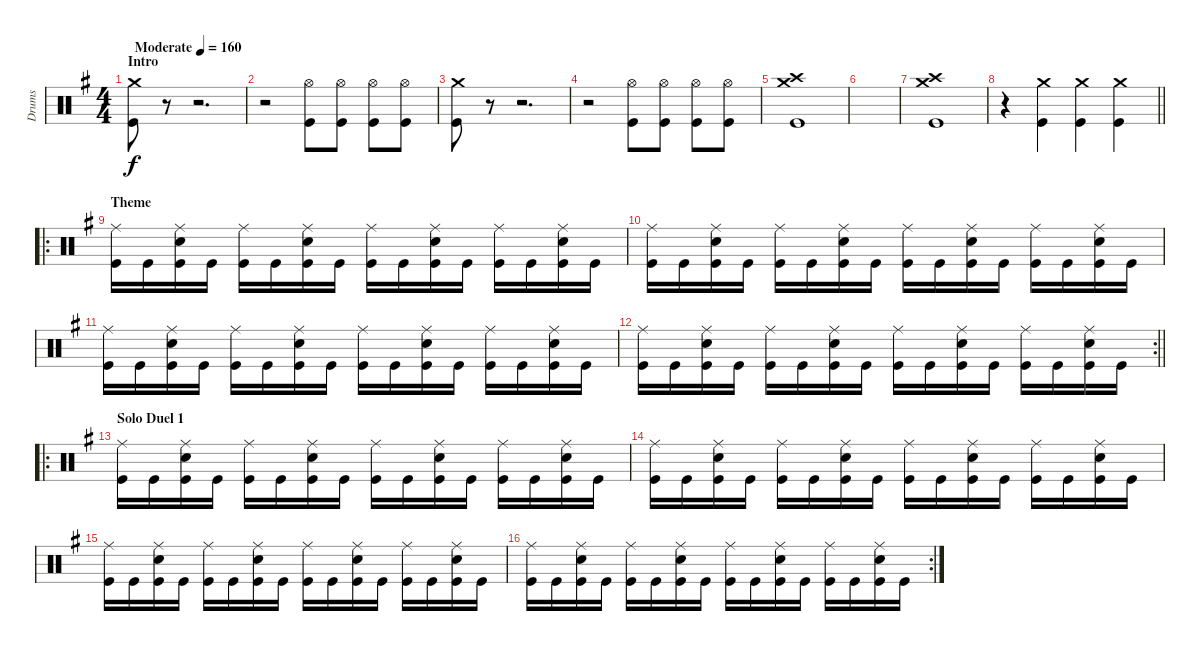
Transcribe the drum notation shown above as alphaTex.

\track ("Drums" "Drums") {instrument percussion}
\staff {score}
\articulation defaults
\ts (4 4)
\section ("" "Intro")
\tempo (160 "Moderate")
\clef neutral
\ks eminor
("Crash medium (hit)" "Kick (hit)").8{dy f} r.8 r.2{d} |
r.2 ("Hi-Hat (open)" "Kick (hit)").8 ("Hi-Hat (open)" "Kick (hit)").8 ("Hi-Hat (open)" "Kick (hit)").8 ("Hi-Hat (open)" "Kick (hit)").8 |
("Crash medium (hit)" "Kick (hit)").8 r.8 r.2{d} |
r.2 ("Hi-Hat (open)" "Kick (hit)").8 ("Hi-Hat (open)" "Kick (hit)").8 ("Hi-Hat (open)" "Kick (hit)").8 ("Hi-Hat (open)" "Kick (hit)").8 |
("Crash medium (hit)" "Crash high (hit)" "Kick (hit)").1 |
|
("Crash medium (hit)" "Crash high (hit)" "Kick (hit)").1 |
\barLineRight lightlight
r.4 ("Crash medium (hit)" "Kick (hit)").4 ("Crash medium (hit)" "Kick (hit)").4 ("Crash medium (hit)" "Kick (hit)").4 |
\ro
\section ("" "Theme")
("Ride (middle)" "Kick (hit)").16 "Kick (hit)".16 ("Ride (middle)" "Snare (hit) 2" "Kick (hit)").16 "Kick (hit)".16 ("Ride (middle)" "Kick (hit)").16 "Kick (hit)".16 ("Ride (middle)" "Snare (hit) 2" "Kick (hit)").16 "Kick (hit)".16 ("Ride (middle)" "Kick (hit)").16 "Kick (hit)".16 ("Ride (middle)" "Snare (hit) 2" "Kick (hit)").16 "Kick (hit)".16 ("Ride (middle)" "Kick (hit)").16 "Kick (hit)".16 ("Ride (middle)" "Snare (hit) 2" "Kick (hit)").16 "Kick (hit)".16 |
("Ride (middle)" "Kick (hit)").16 "Kick (hit)".16 ("Ride (middle)" "Snare (hit) 2" "Kick (hit)").16 "Kick (hit)".16 ("Ride (middle)" "Kick (hit)").16 "Kick (hit)".16 ("Ride (middle)" "Snare (hit) 2" "Kick (hit)").16 "Kick (hit)".16 ("Ride (middle)" "Kick (hit)").16 "Kick (hit)".16 ("Ride (middle)" "Snare (hit) 2" "Kick (hit)").16 "Kick (hit)".16 ("Ride (middle)" "Kick (hit)").16 "Kick (hit)".16 ("Ride (middle)" "Snare (hit) 2" "Kick (hit)").16 "Kick (hit)".16 |
("Ride (middle)" "Kick (hit)").16 "Kick (hit)".16 ("Ride (middle)" "Snare (hit) 2" "Kick (hit)").16 "Kick (hit)".16 ("Ride (middle)" "Kick (hit)").16 "Kick (hit)".16 ("Ride (middle)" "Snare (hit) 2" "Kick (hit)").16 "Kick (hit)".16 ("Ride (middle)" "Kick (hit)").16 "Kick (hit)".16 ("Ride (middle)" "Snare (hit) 2" "Kick (hit)").16 "Kick (hit)".16 ("Ride (middle)" "Kick (hit)").16 "Kick (hit)".16 ("Ride (middle)" "Snare (hit) 2" "Kick (hit)").16 "Kick (hit)".16 |
\rc 2
\barLineRight lightlight
("Ride (middle)" "Kick (hit)").16 "Kick (hit)".16 ("Ride (middle)" "Snare (hit) 2" "Kick (hit)").16 "Kick (hit)".16 ("Ride (middle)" "Kick (hit)").16 "Kick (hit)".16 ("Ride (middle)" "Snare (hit) 2" "Kick (hit)").16 "Kick (hit)".16 ("Ride (middle)" "Kick (hit)").16 "Kick (hit)".16 ("Ride (middle)" "Snare (hit) 2" "Kick (hit)").16 "Kick (hit)".16 ("Ride (middle)" "Kick (hit)").16 "Kick (hit)".16 ("Ride (middle)" "Snare (hit) 2" "Kick (hit)").16 "Kick (hit)".16 |
\ro
\section ("" "Solo Duel 1")
("Ride (middle)" "Kick (hit)").16 "Kick (hit)".16 ("Ride (middle)" "Snare (hit) 2" "Kick (hit)").16 "Kick (hit)".16 ("Ride (middle)" "Kick (hit)").16 "Kick (hit)".16 ("Ride (middle)" "Snare (hit) 2" "Kick (hit)").16 "Kick (hit)".16 ("Ride (middle)" "Kick (hit)").16 "Kick (hit)".16 ("Ride (middle)" "Snare (hit) 2" "Kick (hit)").16 "Kick (hit)".16 ("Ride (middle)" "Kick (hit)").16 "Kick (hit)".16 ("Ride (middle)" "Snare (hit) 2" "Kick (hit)").16 "Kick (hit)".16 |
("Ride (middle)" "Kick (hit)").16 "Kick (hit)".16 ("Ride (middle)" "Snare (hit) 2" "Kick (hit)").16 "Kick (hit)".16 ("Ride (middle)" "Kick (hit)").16 "Kick (hit)".16 ("Ride (middle)" "Snare (hit) 2" "Kick (hit)").16 "Kick (hit)".16 ("Ride (middle)" "Kick (hit)").16 "Kick (hit)".16 ("Ride (middle)" "Snare (hit) 2" "Kick (hit)").16 "Kick (hit)".16 ("Ride (middle)" "Kick (hit)").16 "Kick (hit)".16 ("Ride (middle)" "Snare (hit) 2" "Kick (hit)").16 "Kick (hit)".16 |
("Ride (middle)" "Kick (hit)").16 "Kick (hit)".16 ("Ride (middle)" "Snare (hit) 2" "Kick (hit)").16 "Kick (hit)".16 ("Ride (middle)" "Kick (hit)").16 "Kick (hit)".16 ("Ride (middle)" "Snare (hit) 2" "Kick (hit)").16 "Kick (hit)".16 ("Ride (middle)" "Kick (hit)").16 "Kick (hit)".16 ("Ride (middle)" "Snare (hit) 2" "Kick (hit)").16 "Kick (hit)".16 ("Ride (middle)" "Kick (hit)").16 "Kick (hit)".16 ("Ride (middle)" "Snare (hit) 2" "Kick (hit)").16 "Kick (hit)".16 |
\rc 2
("Ride (middle)" "Kick (hit)").16 "Kick (hit)".16 ("Ride (middle)" "Snare (hit) 2" "Kick (hit)").16 "Kick (hit)".16 ("Ride (middle)" "Kick (hit)").16 "Kick (hit)".16 ("Ride (middle)" "Snare (hit) 2" "Kick (hit)").16 "Kick (hit)".16 ("Ride (middle)" "Kick (hit)").16 "Kick (hit)".16 ("Ride (middle)" "Snare (hit) 2" "Kick (hit)").16 "Kick (hit)".16 ("Ride (middle)" "Kick (hit)").16 "Kick (hit)".16 ("Ride (middle)" "Snare (hit) 2" "Kick (hit)").16 "Kick (hit)".16
